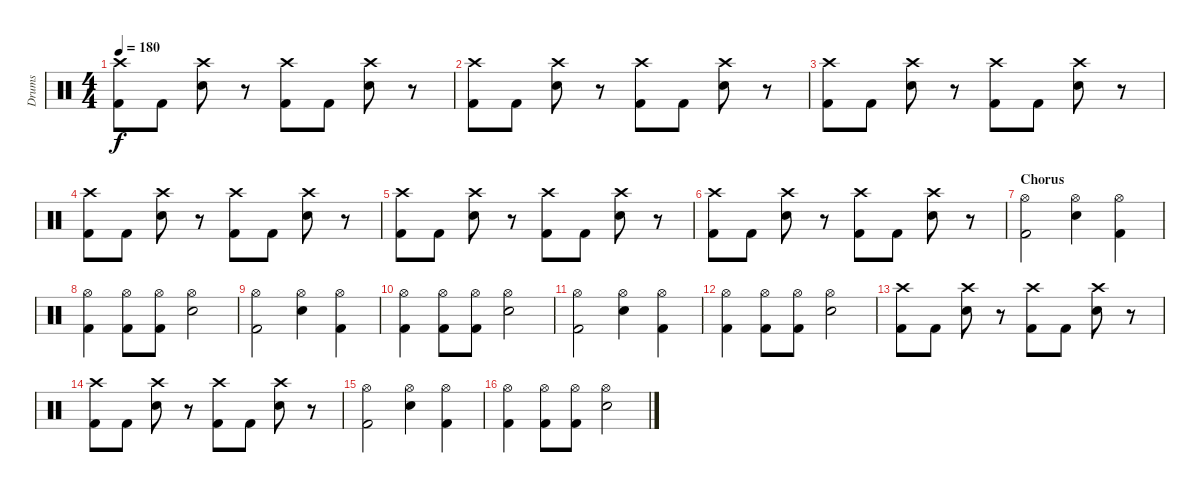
\track ("Drums" "Drums") {instrument percussion}
\staff {score}
\articulation defaults
\ts (4 4)
\tempo 180
\clef neutral
\ks c
("Crash high (hit)" "Kick (hit) 2").8{dy f} "Kick (hit) 2".8 ("Crash high (hit)" "Snare (hit) 2").8 r.8 ("Crash high (hit)" "Kick (hit) 2").8 "Kick (hit) 2".8 ("Crash high (hit)" "Snare (hit) 2").8 r.8 |
("Crash high (hit)" "Kick (hit) 2").8 "Kick (hit) 2".8 ("Crash high (hit)" "Snare (hit) 2").8 r.8 ("Crash high (hit)" "Kick (hit) 2").8 "Kick (hit) 2".8 ("Crash high (hit)" "Snare (hit) 2").8 r.8 |
("Crash high (hit)" "Kick (hit) 2").8 "Kick (hit) 2".8 ("Crash high (hit)" "Snare (hit) 2").8 r.8 ("Crash high (hit)" "Kick (hit) 2").8 "Kick (hit) 2".8 ("Crash high (hit)" "Snare (hit) 2").8 r.8 |
("Crash high (hit)" "Kick (hit) 2").8 "Kick (hit) 2".8 ("Crash high (hit)" "Snare (hit) 2").8 r.8 ("Crash high (hit)" "Kick (hit) 2").8 "Kick (hit) 2".8 ("Crash high (hit)" "Snare (hit) 2").8 r.8 |
("Crash high (hit)" "Kick (hit) 2").8 "Kick (hit) 2".8 ("Crash high (hit)" "Snare (hit) 2").8 r.8 ("Crash high (hit)" "Kick (hit) 2").8 "Kick (hit) 2".8 ("Crash high (hit)" "Snare (hit) 2").8 r.8 |
("Crash high (hit)" "Kick (hit) 2").8 "Kick (hit) 2".8 ("Crash high (hit)" "Snare (hit) 2").8 r.8 ("Crash high (hit)" "Kick (hit) 2").8 "Kick (hit) 2".8 ("Crash high (hit)" "Snare (hit) 2").8 r.8 |
\section ("" "Chorus")
("Hi-Hat (open)" "Kick (hit) 2").2 ("Hi-Hat (open)" "Snare (hit) 2").4 ("Hi-Hat (open)" "Kick (hit) 2").4 |
("Hi-Hat (open)" "Kick (hit) 2").4 ("Hi-Hat (open)" "Kick (hit) 2").8 ("Hi-Hat (open)" "Kick (hit) 2").8 ("Hi-Hat (open)" "Snare (hit) 2").2 |
("Hi-Hat (open)" "Kick (hit) 2").2 ("Hi-Hat (open)" "Snare (hit) 2").4 ("Hi-Hat (open)" "Kick (hit) 2").4 |
("Hi-Hat (open)" "Kick (hit) 2").4 ("Hi-Hat (open)" "Kick (hit) 2").8 ("Hi-Hat (open)" "Kick (hit) 2").8 ("Hi-Hat (open)" "Snare (hit) 2").2 |
("Hi-Hat (open)" "Kick (hit) 2").2 ("Hi-Hat (open)" "Snare (hit) 2").4 ("Hi-Hat (open)" "Kick (hit) 2").4 |
("Hi-Hat (open)" "Kick (hit) 2").4 ("Hi-Hat (open)" "Kick (hit) 2").8 ("Hi-Hat (open)" "Kick (hit) 2").8 ("Hi-Hat (open)" "Snare (hit) 2").2 |
("Crash high (hit)" "Kick (hit) 2").8 "Kick (hit) 2".8 ("Crash high (hit)" "Snare (hit) 2").8 r.8 ("Crash high (hit)" "Kick (hit) 2").8 "Kick (hit) 2".8 ("Crash high (hit)" "Snare (hit) 2").8 r.8 |
("Crash high (hit)" "Kick (hit) 2").8 "Kick (hit) 2".8 ("Crash high (hit)" "Snare (hit) 2").8 r.8 ("Crash high (hit)" "Kick (hit) 2").8 "Kick (hit) 2".8 ("Crash high (hit)" "Snare (hit) 2").8 r.8 |
("Hi-Hat (open)" "Kick (hit) 2").2 ("Hi-Hat (open)" "Snare (hit) 2").4 ("Hi-Hat (open)" "Kick (hit) 2").4 |
("Hi-Hat (open)" "Kick (hit) 2").4 ("Hi-Hat (open)" "Kick (hit) 2").8 ("Hi-Hat (open)" "Kick (hit) 2").8 ("Hi-Hat (open)" "Snare (hit) 2").2
